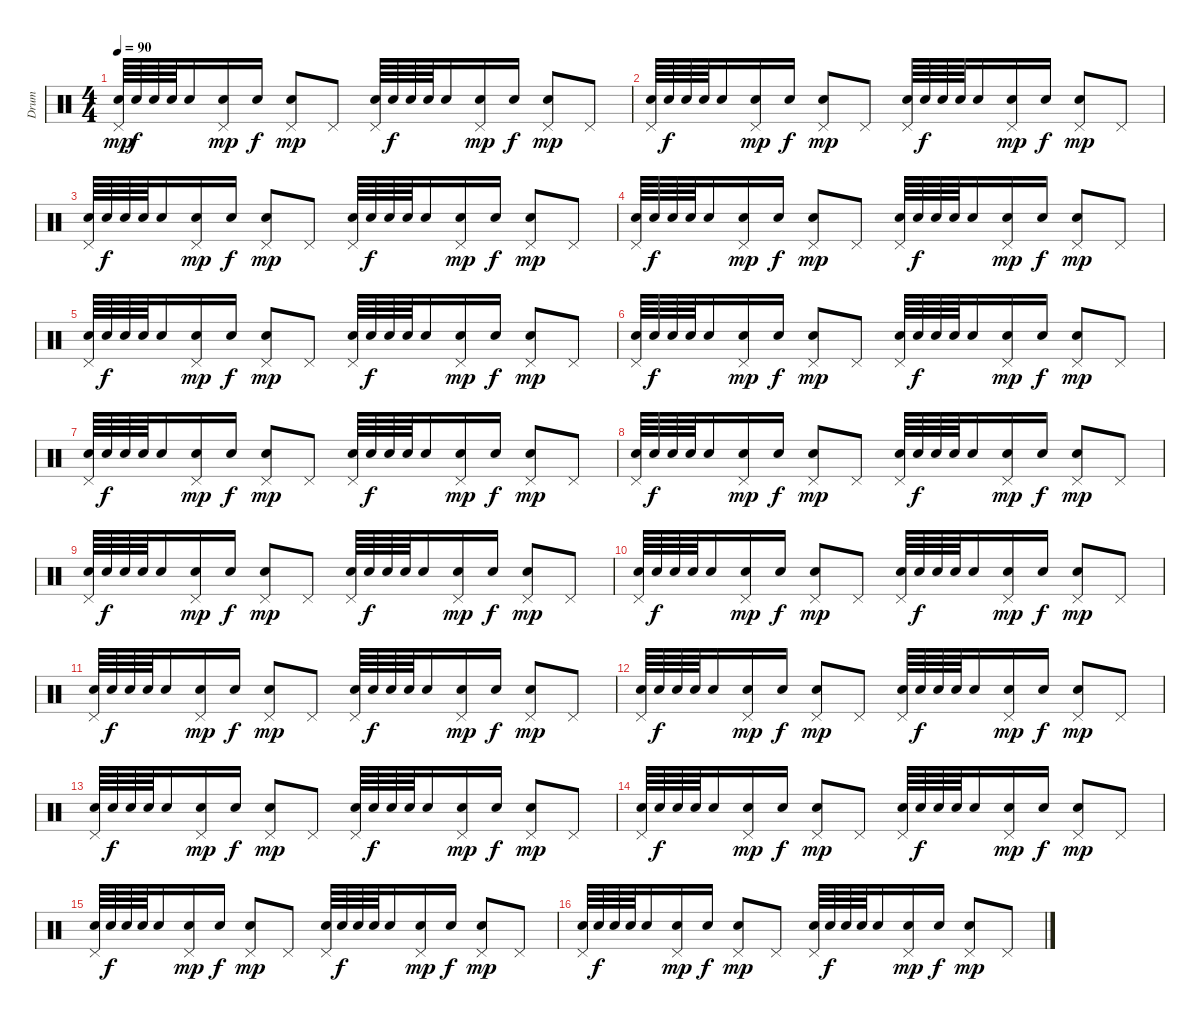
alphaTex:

\track ("Drum" "Drum") {instrument percussion}
\staff {score}
\articulation defaults
\ts (4 4)
\tempo 90
\clef neutral
\ks c
("Snare (hit) 2" "Pedal Hi-Hat (hit)").64{dy mp} "Snare (hit) 2".64{dy f} "Snare (hit) 2".64 "Snare (hit) 2".64 "Snare (hit) 2".16 ("Snare (hit) 2" "Pedal Hi-Hat (hit)").16{dy mp} "Snare (hit) 2".16{dy f} ("Snare (hit) 2" "Pedal Hi-Hat (hit)").8{dy mp} "Pedal Hi-Hat (hit)".8 ("Snare (hit) 2" "Pedal Hi-Hat (hit)").64 "Snare (hit) 2".64{dy f} "Snare (hit) 2".64 "Snare (hit) 2".64 "Snare (hit) 2".16 ("Snare (hit) 2" "Pedal Hi-Hat (hit)").16{dy mp} "Snare (hit) 2".16{dy f} ("Snare (hit) 2" "Pedal Hi-Hat (hit)").8{dy mp} "Pedal Hi-Hat (hit)".8 |
("Snare (hit) 2" "Pedal Hi-Hat (hit)").64 "Snare (hit) 2".64{dy f} "Snare (hit) 2".64 "Snare (hit) 2".64 "Snare (hit) 2".16 ("Snare (hit) 2" "Pedal Hi-Hat (hit)").16{dy mp} "Snare (hit) 2".16{dy f} ("Snare (hit) 2" "Pedal Hi-Hat (hit)").8{dy mp} "Pedal Hi-Hat (hit)".8 ("Snare (hit) 2" "Pedal Hi-Hat (hit)").64 "Snare (hit) 2".64{dy f} "Snare (hit) 2".64 "Snare (hit) 2".64 "Snare (hit) 2".16 ("Snare (hit) 2" "Pedal Hi-Hat (hit)").16{dy mp} "Snare (hit) 2".16{dy f} ("Snare (hit) 2" "Pedal Hi-Hat (hit)").8{dy mp} "Pedal Hi-Hat (hit)".8 |
("Snare (hit) 2" "Pedal Hi-Hat (hit)").64 "Snare (hit) 2".64{dy f} "Snare (hit) 2".64 "Snare (hit) 2".64 "Snare (hit) 2".16 ("Snare (hit) 2" "Pedal Hi-Hat (hit)").16{dy mp} "Snare (hit) 2".16{dy f} ("Snare (hit) 2" "Pedal Hi-Hat (hit)").8{dy mp} "Pedal Hi-Hat (hit)".8 ("Snare (hit) 2" "Pedal Hi-Hat (hit)").64 "Snare (hit) 2".64{dy f} "Snare (hit) 2".64 "Snare (hit) 2".64 "Snare (hit) 2".16 ("Snare (hit) 2" "Pedal Hi-Hat (hit)").16{dy mp} "Snare (hit) 2".16{dy f} ("Snare (hit) 2" "Pedal Hi-Hat (hit)").8{dy mp} "Pedal Hi-Hat (hit)".8 |
("Snare (hit) 2" "Pedal Hi-Hat (hit)").64 "Snare (hit) 2".64{dy f} "Snare (hit) 2".64 "Snare (hit) 2".64 "Snare (hit) 2".16 ("Snare (hit) 2" "Pedal Hi-Hat (hit)").16{dy mp} "Snare (hit) 2".16{dy f} ("Snare (hit) 2" "Pedal Hi-Hat (hit)").8{dy mp} "Pedal Hi-Hat (hit)".8 ("Snare (hit) 2" "Pedal Hi-Hat (hit)").64 "Snare (hit) 2".64{dy f} "Snare (hit) 2".64 "Snare (hit) 2".64 "Snare (hit) 2".16 ("Snare (hit) 2" "Pedal Hi-Hat (hit)").16{dy mp} "Snare (hit) 2".16{dy f} ("Snare (hit) 2" "Pedal Hi-Hat (hit)").8{dy mp} "Pedal Hi-Hat (hit)".8 |
("Snare (hit) 2" "Pedal Hi-Hat (hit)").64 "Snare (hit) 2".64{dy f} "Snare (hit) 2".64 "Snare (hit) 2".64 "Snare (hit) 2".16 ("Snare (hit) 2" "Pedal Hi-Hat (hit)").16{dy mp} "Snare (hit) 2".16{dy f} ("Snare (hit) 2" "Pedal Hi-Hat (hit)").8{dy mp} "Pedal Hi-Hat (hit)".8 ("Snare (hit) 2" "Pedal Hi-Hat (hit)").64 "Snare (hit) 2".64{dy f} "Snare (hit) 2".64 "Snare (hit) 2".64 "Snare (hit) 2".16 ("Snare (hit) 2" "Pedal Hi-Hat (hit)").16{dy mp} "Snare (hit) 2".16{dy f} ("Snare (hit) 2" "Pedal Hi-Hat (hit)").8{dy mp} "Pedal Hi-Hat (hit)".8 |
("Snare (hit) 2" "Pedal Hi-Hat (hit)").64 "Snare (hit) 2".64{dy f} "Snare (hit) 2".64 "Snare (hit) 2".64 "Snare (hit) 2".16 ("Snare (hit) 2" "Pedal Hi-Hat (hit)").16{dy mp} "Snare (hit) 2".16{dy f} ("Snare (hit) 2" "Pedal Hi-Hat (hit)").8{dy mp} "Pedal Hi-Hat (hit)".8 ("Snare (hit) 2" "Pedal Hi-Hat (hit)").64 "Snare (hit) 2".64{dy f} "Snare (hit) 2".64 "Snare (hit) 2".64 "Snare (hit) 2".16 ("Snare (hit) 2" "Pedal Hi-Hat (hit)").16{dy mp} "Snare (hit) 2".16{dy f} ("Snare (hit) 2" "Pedal Hi-Hat (hit)").8{dy mp} "Pedal Hi-Hat (hit)".8 |
("Snare (hit) 2" "Pedal Hi-Hat (hit)").64 "Snare (hit) 2".64{dy f} "Snare (hit) 2".64 "Snare (hit) 2".64 "Snare (hit) 2".16 ("Snare (hit) 2" "Pedal Hi-Hat (hit)").16{dy mp} "Snare (hit) 2".16{dy f} ("Snare (hit) 2" "Pedal Hi-Hat (hit)").8{dy mp} "Pedal Hi-Hat (hit)".8 ("Snare (hit) 2" "Pedal Hi-Hat (hit)").64 "Snare (hit) 2".64{dy f} "Snare (hit) 2".64 "Snare (hit) 2".64 "Snare (hit) 2".16 ("Snare (hit) 2" "Pedal Hi-Hat (hit)").16{dy mp} "Snare (hit) 2".16{dy f} ("Snare (hit) 2" "Pedal Hi-Hat (hit)").8{dy mp} "Pedal Hi-Hat (hit)".8 |
("Snare (hit) 2" "Pedal Hi-Hat (hit)").64 "Snare (hit) 2".64{dy f} "Snare (hit) 2".64 "Snare (hit) 2".64 "Snare (hit) 2".16 ("Snare (hit) 2" "Pedal Hi-Hat (hit)").16{dy mp} "Snare (hit) 2".16{dy f} ("Snare (hit) 2" "Pedal Hi-Hat (hit)").8{dy mp} "Pedal Hi-Hat (hit)".8 ("Snare (hit) 2" "Pedal Hi-Hat (hit)").64 "Snare (hit) 2".64{dy f} "Snare (hit) 2".64 "Snare (hit) 2".64 "Snare (hit) 2".16 ("Snare (hit) 2" "Pedal Hi-Hat (hit)").16{dy mp} "Snare (hit) 2".16{dy f} ("Snare (hit) 2" "Pedal Hi-Hat (hit)").8{dy mp} "Pedal Hi-Hat (hit)".8 |
("Snare (hit) 2" "Pedal Hi-Hat (hit)").64 "Snare (hit) 2".64{dy f} "Snare (hit) 2".64 "Snare (hit) 2".64 "Snare (hit) 2".16 ("Snare (hit) 2" "Pedal Hi-Hat (hit)").16{dy mp} "Snare (hit) 2".16{dy f} ("Snare (hit) 2" "Pedal Hi-Hat (hit)").8{dy mp} "Pedal Hi-Hat (hit)".8 ("Snare (hit) 2" "Pedal Hi-Hat (hit)").64 "Snare (hit) 2".64{dy f} "Snare (hit) 2".64 "Snare (hit) 2".64 "Snare (hit) 2".16 ("Snare (hit) 2" "Pedal Hi-Hat (hit)").16{dy mp} "Snare (hit) 2".16{dy f} ("Snare (hit) 2" "Pedal Hi-Hat (hit)").8{dy mp} "Pedal Hi-Hat (hit)".8 |
("Snare (hit) 2" "Pedal Hi-Hat (hit)").64 "Snare (hit) 2".64{dy f} "Snare (hit) 2".64 "Snare (hit) 2".64 "Snare (hit) 2".16 ("Snare (hit) 2" "Pedal Hi-Hat (hit)").16{dy mp} "Snare (hit) 2".16{dy f} ("Snare (hit) 2" "Pedal Hi-Hat (hit)").8{dy mp} "Pedal Hi-Hat (hit)".8 ("Snare (hit) 2" "Pedal Hi-Hat (hit)").64 "Snare (hit) 2".64{dy f} "Snare (hit) 2".64 "Snare (hit) 2".64 "Snare (hit) 2".16 ("Snare (hit) 2" "Pedal Hi-Hat (hit)").16{dy mp} "Snare (hit) 2".16{dy f} ("Snare (hit) 2" "Pedal Hi-Hat (hit)").8{dy mp} "Pedal Hi-Hat (hit)".8 |
("Snare (hit) 2" "Pedal Hi-Hat (hit)").64 "Snare (hit) 2".64{dy f} "Snare (hit) 2".64 "Snare (hit) 2".64 "Snare (hit) 2".16 ("Snare (hit) 2" "Pedal Hi-Hat (hit)").16{dy mp} "Snare (hit) 2".16{dy f} ("Snare (hit) 2" "Pedal Hi-Hat (hit)").8{dy mp} "Pedal Hi-Hat (hit)".8 ("Snare (hit) 2" "Pedal Hi-Hat (hit)").64 "Snare (hit) 2".64{dy f} "Snare (hit) 2".64 "Snare (hit) 2".64 "Snare (hit) 2".16 ("Snare (hit) 2" "Pedal Hi-Hat (hit)").16{dy mp} "Snare (hit) 2".16{dy f} ("Snare (hit) 2" "Pedal Hi-Hat (hit)").8{dy mp} "Pedal Hi-Hat (hit)".8 |
("Snare (hit) 2" "Pedal Hi-Hat (hit)").64 "Snare (hit) 2".64{dy f} "Snare (hit) 2".64 "Snare (hit) 2".64 "Snare (hit) 2".16 ("Snare (hit) 2" "Pedal Hi-Hat (hit)").16{dy mp} "Snare (hit) 2".16{dy f} ("Snare (hit) 2" "Pedal Hi-Hat (hit)").8{dy mp} "Pedal Hi-Hat (hit)".8 ("Snare (hit) 2" "Pedal Hi-Hat (hit)").64 "Snare (hit) 2".64{dy f} "Snare (hit) 2".64 "Snare (hit) 2".64 "Snare (hit) 2".16 ("Snare (hit) 2" "Pedal Hi-Hat (hit)").16{dy mp} "Snare (hit) 2".16{dy f} ("Snare (hit) 2" "Pedal Hi-Hat (hit)").8{dy mp} "Pedal Hi-Hat (hit)".8 |
("Snare (hit) 2" "Pedal Hi-Hat (hit)").64 "Snare (hit) 2".64{dy f} "Snare (hit) 2".64 "Snare (hit) 2".64 "Snare (hit) 2".16 ("Snare (hit) 2" "Pedal Hi-Hat (hit)").16{dy mp} "Snare (hit) 2".16{dy f} ("Snare (hit) 2" "Pedal Hi-Hat (hit)").8{dy mp} "Pedal Hi-Hat (hit)".8 ("Snare (hit) 2" "Pedal Hi-Hat (hit)").64 "Snare (hit) 2".64{dy f} "Snare (hit) 2".64 "Snare (hit) 2".64 "Snare (hit) 2".16 ("Snare (hit) 2" "Pedal Hi-Hat (hit)").16{dy mp} "Snare (hit) 2".16{dy f} ("Snare (hit) 2" "Pedal Hi-Hat (hit)").8{dy mp} "Pedal Hi-Hat (hit)".8 |
("Snare (hit) 2" "Pedal Hi-Hat (hit)").64 "Snare (hit) 2".64{dy f} "Snare (hit) 2".64 "Snare (hit) 2".64 "Snare (hit) 2".16 ("Snare (hit) 2" "Pedal Hi-Hat (hit)").16{dy mp} "Snare (hit) 2".16{dy f} ("Snare (hit) 2" "Pedal Hi-Hat (hit)").8{dy mp} "Pedal Hi-Hat (hit)".8 ("Snare (hit) 2" "Pedal Hi-Hat (hit)").64 "Snare (hit) 2".64{dy f} "Snare (hit) 2".64 "Snare (hit) 2".64 "Snare (hit) 2".16 ("Snare (hit) 2" "Pedal Hi-Hat (hit)").16{dy mp} "Snare (hit) 2".16{dy f} ("Snare (hit) 2" "Pedal Hi-Hat (hit)").8{dy mp} "Pedal Hi-Hat (hit)".8 |
("Snare (hit) 2" "Pedal Hi-Hat (hit)").64 "Snare (hit) 2".64{dy f} "Snare (hit) 2".64 "Snare (hit) 2".64 "Snare (hit) 2".16 ("Snare (hit) 2" "Pedal Hi-Hat (hit)").16{dy mp} "Snare (hit) 2".16{dy f} ("Snare (hit) 2" "Pedal Hi-Hat (hit)").8{dy mp} "Pedal Hi-Hat (hit)".8 ("Snare (hit) 2" "Pedal Hi-Hat (hit)").64 "Snare (hit) 2".64{dy f} "Snare (hit) 2".64 "Snare (hit) 2".64 "Snare (hit) 2".16 ("Snare (hit) 2" "Pedal Hi-Hat (hit)").16{dy mp} "Snare (hit) 2".16{dy f} ("Snare (hit) 2" "Pedal Hi-Hat (hit)").8{dy mp} "Pedal Hi-Hat (hit)".8 |
("Snare (hit) 2" "Pedal Hi-Hat (hit)").64 "Snare (hit) 2".64{dy f} "Snare (hit) 2".64 "Snare (hit) 2".64 "Snare (hit) 2".16 ("Snare (hit) 2" "Pedal Hi-Hat (hit)").16{dy mp} "Snare (hit) 2".16{dy f} ("Snare (hit) 2" "Pedal Hi-Hat (hit)").8{dy mp} "Pedal Hi-Hat (hit)".8 ("Snare (hit) 2" "Pedal Hi-Hat (hit)").64 "Snare (hit) 2".64{dy f} "Snare (hit) 2".64 "Snare (hit) 2".64 "Snare (hit) 2".16 ("Snare (hit) 2" "Pedal Hi-Hat (hit)").16{dy mp} "Snare (hit) 2".16{dy f} ("Snare (hit) 2" "Pedal Hi-Hat (hit)").8{dy mp} "Pedal Hi-Hat (hit)".8
